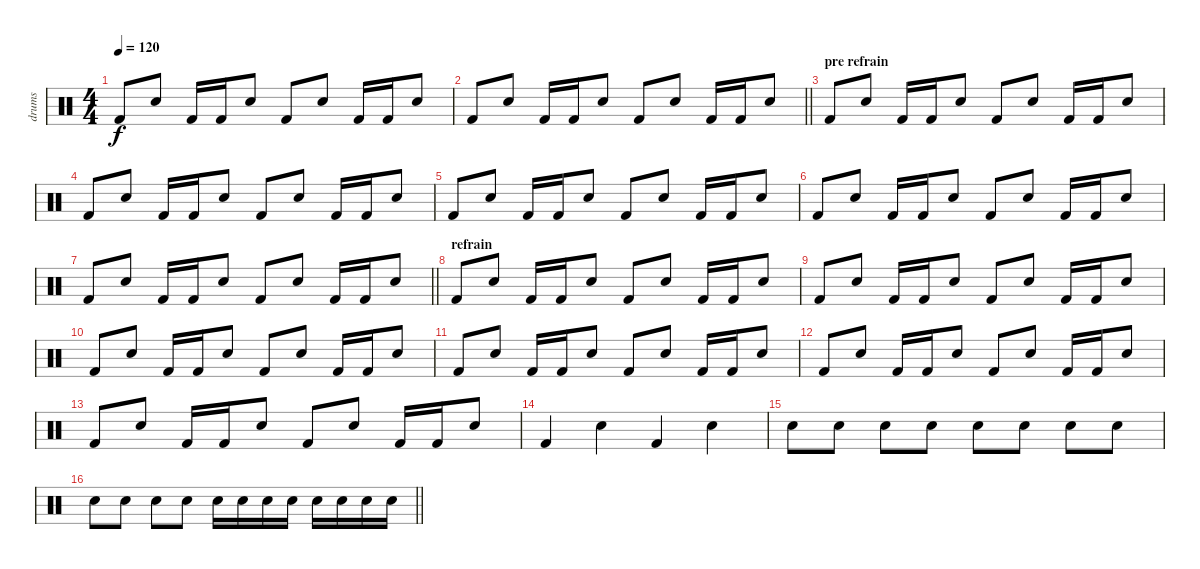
\track ("drums" "drums") {instrument percussion}
\staff {score}
\articulation defaults
\ts (4 4)
\tempo 120
\clef neutral
\ks c "Kick (hit) 2".8{dy f} "Snare (hit) 2".8 "Kick (hit) 2".16 "Kick (hit) 2".16 "Snare (hit) 2".8 "Kick (hit) 2".8 "Snare (hit) 2".8 "Kick (hit) 2".16 "Kick (hit) 2".16 "Snare (hit) 2".8
|
\barLineRight lightlight "Kick (hit) 2".8 "Snare (hit) 2".8 "Kick (hit) 2".16 "Kick (hit) 2".16 "Snare (hit) 2".8 "Kick (hit) 2".8 "Snare (hit) 2".8 "Kick (hit) 2".16 "Kick (hit) 2".16 "Snare (hit) 2".8
|
\section ("" "pre refrain")
"Kick (hit) 2".8 "Snare (hit) 2".8 "Kick (hit) 2".16 "Kick (hit) 2".16 "Snare (hit) 2".8 "Kick (hit) 2".8 "Snare (hit) 2".8 "Kick (hit) 2".16 "Kick (hit) 2".16 "Snare (hit) 2".8 |
"Kick (hit) 2".8 "Snare (hit) 2".8 "Kick (hit) 2".16 "Kick (hit) 2".16 "Snare (hit) 2".8 "Kick (hit) 2".8 "Snare (hit) 2".8 "Kick (hit) 2".16 "Kick (hit) 2".16 "Snare (hit) 2".8 |
"Kick (hit) 2".8 "Snare (hit) 2".8 "Kick (hit) 2".16 "Kick (hit) 2".16 "Snare (hit) 2".8 "Kick (hit) 2".8 "Snare (hit) 2".8 "Kick (hit) 2".16 "Kick (hit) 2".16 "Snare (hit) 2".8 |
"Kick (hit) 2".8 "Snare (hit) 2".8 "Kick (hit) 2".16 "Kick (hit) 2".16 "Snare (hit) 2".8 "Kick (hit) 2".8 "Snare (hit) 2".8 "Kick (hit) 2".16 "Kick (hit) 2".16 "Snare (hit) 2".8 |
\barLineRight lightlight "Kick (hit) 2".8 "Snare (hit) 2".8 "Kick (hit) 2".16 "Kick (hit) 2".16 "Snare (hit) 2".8 "Kick (hit) 2".8 "Snare (hit) 2".8 "Kick (hit) 2".16 "Kick (hit) 2".16 "Snare (hit) 2".8
|
\section ("" "refrain")
"Kick (hit) 2".8 "Snare (hit) 2".8 "Kick (hit) 2".16 "Kick (hit) 2".16 "Snare (hit) 2".8 "Kick (hit) 2".8 "Snare (hit) 2".8 "Kick (hit) 2".16 "Kick (hit) 2".16 "Snare (hit) 2".8 |
"Kick (hit) 2".8 "Snare (hit) 2".8 "Kick (hit) 2".16 "Kick (hit) 2".16 "Snare (hit) 2".8 "Kick (hit) 2".8 "Snare (hit) 2".8 "Kick (hit) 2".16 "Kick (hit) 2".16 "Snare (hit) 2".8 |
"Kick (hit) 2".8 "Snare (hit) 2".8 "Kick (hit) 2".16 "Kick (hit) 2".16 "Snare (hit) 2".8 "Kick (hit) 2".8 "Snare (hit) 2".8 "Kick (hit) 2".16 "Kick (hit) 2".16 "Snare (hit) 2".8 |
"Kick (hit) 2".8 "Snare (hit) 2".8 "Kick (hit) 2".16 "Kick (hit) 2".16 "Snare (hit) 2".8 "Kick (hit) 2".8 "Snare (hit) 2".8 "Kick (hit) 2".16 "Kick (hit) 2".16 "Snare (hit) 2".8 |
"Kick (hit) 2".8 "Snare (hit) 2".8 "Kick (hit) 2".16 "Kick (hit) 2".16 "Snare (hit) 2".8 "Kick (hit) 2".8 "Snare (hit) 2".8 "Kick (hit) 2".16 "Kick (hit) 2".16 "Snare (hit) 2".8 |
"Kick (hit) 2".8 "Snare (hit) 2".8 "Kick (hit) 2".16 "Kick (hit) 2".16 "Snare (hit) 2".8 "Kick (hit) 2".8 "Snare (hit) 2".8 "Kick (hit) 2".16 "Kick (hit) 2".16 "Snare (hit) 2".8 |
"Kick (hit) 2".4 "Snare (hit) 2".4 "Kick (hit) 2".4 "Snare (hit) 2".4 |
"Snare (hit) 2".8 "Snare (hit) 2".8 "Snare (hit) 2".8 "Snare (hit) 2".8 "Snare (hit) 2".8 "Snare (hit) 2".8 "Snare (hit) 2".8 "Snare (hit) 2".8 |
\barLineRight lightlight "Snare (hit) 2".8 "Snare (hit) 2".8 "Snare (hit) 2".8 "Snare (hit) 2".8 "Snare (hit) 2".16 "Snare (hit) 2".16 "Snare (hit) 2".16 "Snare (hit) 2".16 "Snare (hit) 2".16 "Snare (hit) 2".16 "Snare (hit) 2".16 "Snare (hit) 2".16
